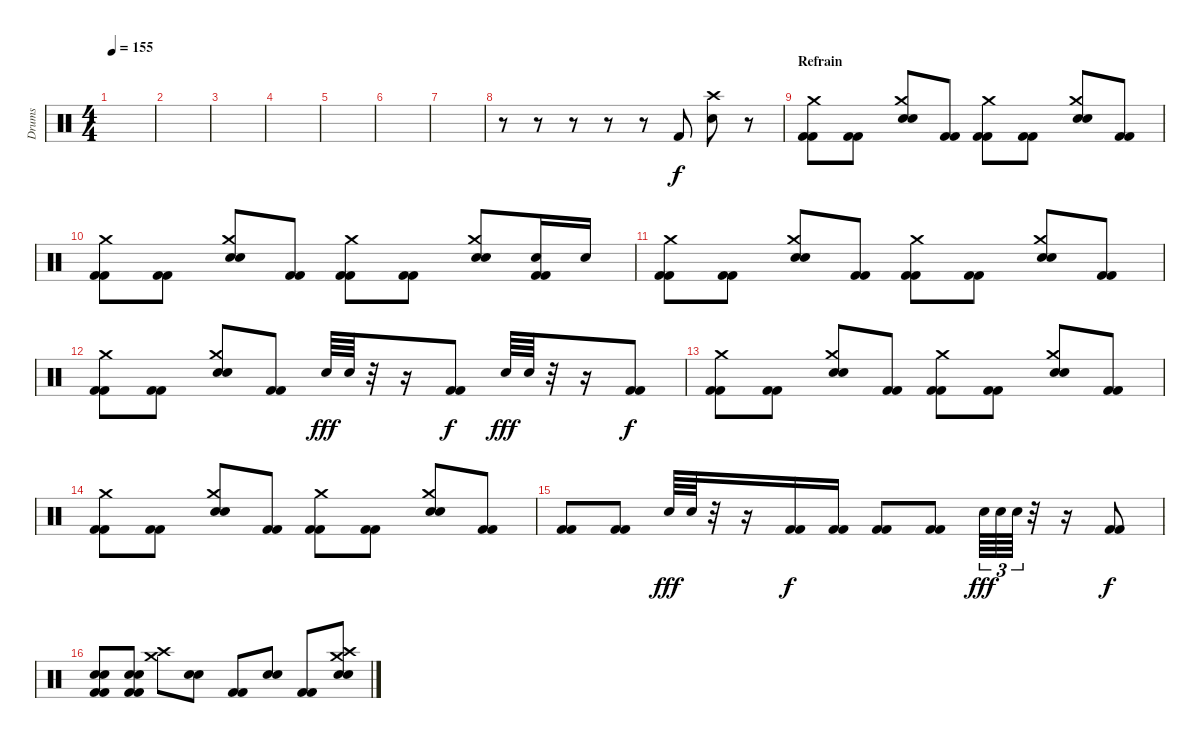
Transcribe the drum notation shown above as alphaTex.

\track ("Drums" "Drums") {instrument percussion}
\staff {score}
\articulation defaults
\ts (4 4)
\tempo 155
\clef neutral
\ks c
|
|
|
|
|
|
|
r.8 r.8 r.8 r.8 r.8 "Kick (hit) 2".8 ("Snare (hit) 2" "Crash high (hit)").8 r.8 |
\section ("" "Refrain")
("Crash medium (hit)" "Kick (hit) 2" "Kick (hit) 2").8{volume 11} ("Kick (hit) 2" "Kick (hit) 2").8 ("Crash medium (hit)" "Snare (hit) 2" "Electric Snare (hit)").8 ("Kick (hit) 2" "Kick (hit) 2").8 ("Crash medium (hit)" "Kick (hit) 2" "Kick (hit) 2").8 ("Kick (hit) 2" "Kick (hit) 2").8 ("Crash medium (hit)" "Snare (hit) 2" "Electric Snare (hit)").8 ("Kick (hit) 2" "Kick (hit) 2").8 |
("Crash medium (hit)" "Kick (hit) 2" "Kick (hit) 2").8 ("Kick (hit) 2" "Kick (hit) 2").8 ("Crash medium (hit)" "Snare (hit) 2" "Electric Snare (hit)").8 ("Kick (hit) 2" "Kick (hit) 2").8 ("Crash medium (hit)" "Kick (hit) 2" "Kick (hit) 2").8 ("Kick (hit) 2" "Kick (hit) 2").8 ("Crash medium (hit)" "Snare (hit) 2" "Electric Snare (hit)").8 ("Electric Snare (hit)" "Kick (hit) 2" "Kick (hit) 2").16 "Electric Snare (hit)".16 |
("Crash medium (hit)" "Kick (hit) 2" "Kick (hit) 2").8 ("Kick (hit) 2" "Kick (hit) 2").8 ("Crash medium (hit)" "Snare (hit) 2" "Electric Snare (hit)").8 ("Kick (hit) 2" "Kick (hit) 2").8 ("Crash medium (hit)" "Kick (hit) 2" "Kick (hit) 2").8 ("Kick (hit) 2" "Kick (hit) 2").8 ("Crash medium (hit)" "Snare (hit) 2" "Electric Snare (hit)").8 ("Kick (hit) 2" "Kick (hit) 2").8 |
("Crash medium (hit)" "Kick (hit) 2" "Kick (hit) 2").8 ("Kick (hit) 2" "Kick (hit) 2").8 ("Crash medium (hit)" "Snare (hit) 2" "Electric Snare (hit)").8 ("Kick (hit) 2" "Kick (hit) 2").8 "Snare (hit) 2".64{dy fff} "Electric Snare (hit)".64 r.32 r.16 ("Kick (hit) 2" "Kick (hit) 2").8{dy f} "Snare (hit) 2".64{dy fff} "Electric Snare (hit)".64 r.32 r.16 ("Kick (hit) 2" "Kick (hit) 2").8{dy f} |
("Crash medium (hit)" "Kick (hit) 2" "Kick (hit) 2").8 ("Kick (hit) 2" "Kick (hit) 2").8 ("Crash medium (hit)" "Snare (hit) 2" "Electric Snare (hit)").8 ("Kick (hit) 2" "Kick (hit) 2").8 ("Crash medium (hit)" "Kick (hit) 2" "Kick (hit) 2").8 ("Kick (hit) 2" "Kick (hit) 2").8 ("Crash medium (hit)" "Snare (hit) 2" "Electric Snare (hit)").8 ("Kick (hit) 2" "Kick (hit) 2").8 |
("Crash medium (hit)" "Kick (hit) 2" "Kick (hit) 2").8 ("Kick (hit) 2" "Kick (hit) 2").8 ("Crash medium (hit)" "Snare (hit) 2" "Electric Snare (hit)").8 ("Kick (hit) 2" "Kick (hit) 2").8 ("Crash medium (hit)" "Kick (hit) 2" "Kick (hit) 2").8 ("Kick (hit) 2" "Kick (hit) 2").8 ("Crash medium (hit)" "Snare (hit) 2" "Electric Snare (hit)").8 ("Kick (hit) 2" "Kick (hit) 2").8 |
("Kick (hit) 2" "Kick (hit) 2").8 ("Kick (hit) 2" "Kick (hit) 2").8 "Snare (hit) 2".64{dy fff} "Electric Snare (hit)".64 r.32 r.16 ("Kick (hit) 2" "Kick (hit) 2").16{dy f} ("Kick (hit) 2" "Kick (hit) 2").16 ("Kick (hit) 2" "Kick (hit) 2").8 ("Kick (hit) 2" "Kick (hit) 2").8 "Snare (hit) 2".64{tu (3 2) dy fff} "Electric Snare (hit)".64{tu (3 2)} "Snare (hit) 2".64{tu (3 2)} r.32 r.16 ("Kick (hit) 2" "Kick (hit) 2").8{dy f} |
("Snare (hit) 2" "Electric Snare (hit)" "Kick (hit) 2" "Kick (hit) 2").8 ("Snare (hit) 2" "Electric Snare (hit)" "Kick (hit) 2" "Kick (hit) 2").8 ("Crash medium (hit)" "Crash high (hit)").8 ("Snare (hit) 2" "Electric Snare (hit)").8 ("Kick (hit) 2" "Kick (hit) 2").8 ("Snare (hit) 2" "Electric Snare (hit)").8 ("Kick (hit) 2" "Kick (hit) 2").8 ("Crash medium (hit)" "Crash high (hit)" "Snare (hit) 2" "Electric Snare (hit)").8
